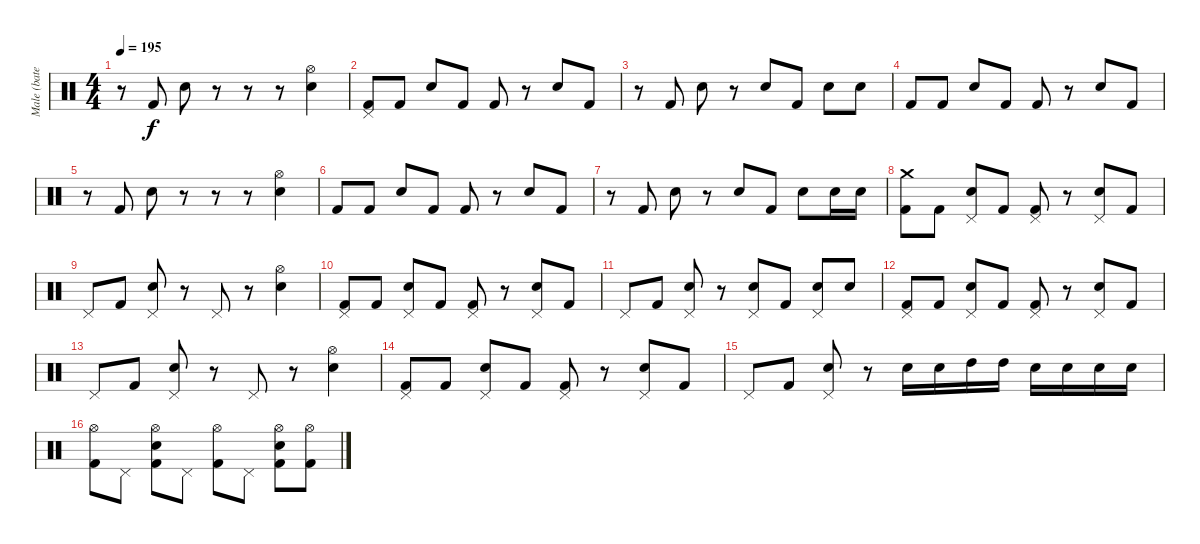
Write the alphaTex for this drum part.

\track ("Male (bateria)" "Male (bate") {instrument percussion}
\staff {score}
\articulation defaults
\ts (4 4)
\tempo 195
\clef neutral
\ks c
r.8{dy f} "Kick (hit) 2".8 "Electric Snare (hit)".8 r.8 r.8 r.8 ("Electric Snare (hit)" "Hi-Hat (open)").4 |
("Kick (hit) 2" "Pedal Hi-Hat (hit)").8 "Kick (hit) 2".8 "Electric Snare (hit)".8 "Kick (hit) 2".8 "Kick (hit) 2".8 r.8 "Electric Snare (hit)".8 "Kick (hit) 2".8 |
r.8 "Kick (hit) 2".8 "Electric Snare (hit)".8 r.8 "Electric Snare (hit)".8 "Kick (hit) 2".8 "Electric Snare (hit)".8 "Electric Snare (hit)".8 |
"Kick (hit) 2".8 "Kick (hit) 2".8 "Electric Snare (hit)".8 "Kick (hit) 2".8 "Kick (hit) 2".8 r.8 "Electric Snare (hit)".8 "Kick (hit) 2".8 |
r.8 "Kick (hit) 2".8 "Electric Snare (hit)".8 r.8 r.8 r.8 ("Electric Snare (hit)" "Hi-Hat (open)").4 |
"Kick (hit) 2".8 "Kick (hit) 2".8 "Electric Snare (hit)".8 "Kick (hit) 2".8 "Kick (hit) 2".8 r.8 "Electric Snare (hit)".8 "Kick (hit) 2".8 |
r.8 "Kick (hit) 2".8 "Electric Snare (hit)".8 r.8 "Electric Snare (hit)".8 "Kick (hit) 2".8 "Electric Snare (hit)".8 "Electric Snare (hit)".16 "Electric Snare (hit)".16 |
("Kick (hit) 2" "Crash medium (hit)").8 "Kick (hit) 2".8 ("Electric Snare (hit)" "Pedal Hi-Hat (hit)").8 "Kick (hit) 2".8 ("Kick (hit) 2" "Pedal Hi-Hat (hit)").8 r.8 ("Electric Snare (hit)" "Pedal Hi-Hat (hit)").8 "Kick (hit) 2".8 |
"Pedal Hi-Hat (hit)".8 "Kick (hit) 2".8 ("Electric Snare (hit)" "Pedal Hi-Hat (hit)").8 r.8 "Pedal Hi-Hat (hit)".8 r.8 ("Electric Snare (hit)" "Hi-Hat (open)").4 |
("Kick (hit) 2" "Pedal Hi-Hat (hit)").8 "Kick (hit) 2".8 ("Electric Snare (hit)" "Pedal Hi-Hat (hit)").8 "Kick (hit) 2".8 ("Kick (hit) 2" "Pedal Hi-Hat (hit)").8 r.8 ("Electric Snare (hit)" "Pedal Hi-Hat (hit)").8 "Kick (hit) 2".8 |
"Pedal Hi-Hat (hit)".8 "Kick (hit) 2".8 ("Electric Snare (hit)" "Pedal Hi-Hat (hit)").8 r.8 ("Electric Snare (hit)" "Pedal Hi-Hat (hit)").8 "Kick (hit) 2".8 ("Electric Snare (hit)" "Pedal Hi-Hat (hit)").8 "Electric Snare (hit)".8 |
("Kick (hit) 2" "Pedal Hi-Hat (hit)").8 "Kick (hit) 2".8 ("Electric Snare (hit)" "Pedal Hi-Hat (hit)").8 "Kick (hit) 2".8 ("Kick (hit) 2" "Pedal Hi-Hat (hit)").8 r.8 ("Electric Snare (hit)" "Pedal Hi-Hat (hit)").8 "Kick (hit) 2".8 |
"Pedal Hi-Hat (hit)".8 "Kick (hit) 2".8 ("Electric Snare (hit)" "Pedal Hi-Hat (hit)").8 r.8 "Pedal Hi-Hat (hit)".8 r.8 ("Electric Snare (hit)" "Hi-Hat (open)").4 |
("Kick (hit) 2" "Pedal Hi-Hat (hit)").8 "Kick (hit) 2".8 ("Electric Snare (hit)" "Pedal Hi-Hat (hit)").8 "Kick (hit) 2".8 ("Kick (hit) 2" "Pedal Hi-Hat (hit)").8 r.8 ("Electric Snare (hit)" "Pedal Hi-Hat (hit)").8 "Kick (hit) 2".8 |
"Pedal Hi-Hat (hit)".8 "Kick (hit) 2".8 ("Electric Snare (hit)" "Pedal Hi-Hat (hit)").8 r.8 "Electric Snare (hit)".16 "Electric Snare (hit)".16 "High Tom (hit)".16 "High Tom (hit)".16 "Electric Snare (hit)".16 "Electric Snare (hit)".16 "Electric Snare (hit)".16 "Electric Snare (hit)".16 |
("Kick (hit) 2" "Hi-Hat (open)").8 "Pedal Hi-Hat (hit)".8 ("Kick (hit) 2" "Electric Snare (hit)" "Hi-Hat (open)").8 "Pedal Hi-Hat (hit)".8 ("Kick (hit) 2" "Hi-Hat (open)").8 "Pedal Hi-Hat (hit)".8 ("Kick (hit) 2" "Electric Snare (hit)" "Hi-Hat (open)").8 ("Kick (hit) 2" "Hi-Hat (open)").8
